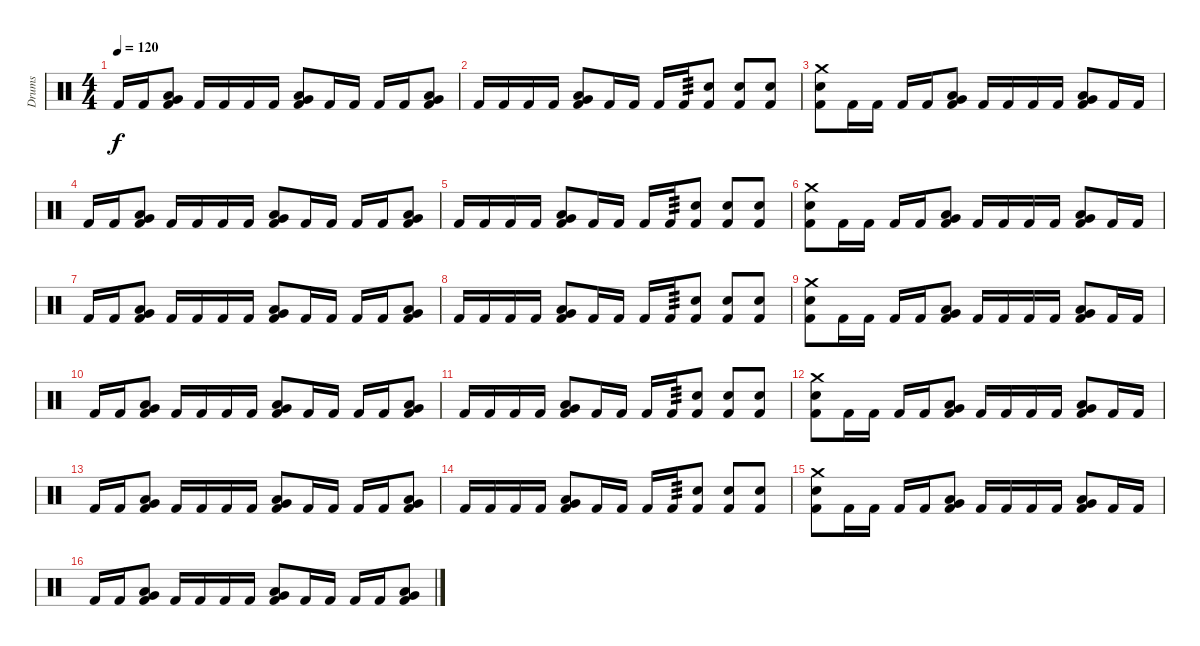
\track ("Drums" "Drums") {instrument percussion}
\staff {score}
\articulation defaults
\ts (4 4)
\tempo 120
\clef neutral
\ks c "Kick (hit) 2".16{dy f} "Kick (hit) 2".16
("Low Floor Tom (hit)" "Very Low Tom (hit)" "Kick (hit) 2").8 "Kick (hit) 2".16 "Kick (hit) 2".16 "Kick (hit) 2".16 "Kick (hit) 2".16 ("Low Floor Tom (hit)" "Very Low Tom (hit)" "Kick (hit) 2").8 "Kick (hit) 2".16 "Kick (hit) 2".16 "Kick (hit) 2".16 "Kick (hit) 2".16 ("Low Floor Tom (hit)" "Very Low Tom (hit)" "Kick (hit) 2").8 |
"Kick (hit) 2".16 "Kick (hit) 2".16 "Kick (hit) 2".16 "Kick (hit) 2".16 ("Low Floor Tom (hit)" "Very Low Tom (hit)" "Kick (hit) 2").8 "Kick (hit) 2".16 "Kick (hit) 2".16 "Kick (hit) 2".16 "Kick (hit) 2".16{tp 3} ("Snare (hit) 2" "Kick (hit) 2").8 ("Snare (hit) 2" "Kick (hit) 2").8 ("Snare (hit) 2" "Kick (hit) 2").8 |
("Crash medium (hit)" "Snare (hit) 2" "Kick (hit) 2").8 "Kick (hit) 2".16 "Kick (hit) 2".16 "Kick (hit) 2".16 "Kick (hit) 2".16 ("Low Floor Tom (hit)" "Very Low Tom (hit)" "Kick (hit) 2").8 "Kick (hit) 2".16 "Kick (hit) 2".16 "Kick (hit) 2".16 "Kick (hit) 2".16 ("Low Floor Tom (hit)" "Very Low Tom (hit)" "Kick (hit) 2").8 "Kick (hit) 2".16 "Kick (hit) 2".16 |
"Kick (hit) 2".16 "Kick (hit) 2".16 ("Low Floor Tom (hit)" "Very Low Tom (hit)" "Kick (hit) 2").8 "Kick (hit) 2".16 "Kick (hit) 2".16 "Kick (hit) 2".16 "Kick (hit) 2".16 ("Low Floor Tom (hit)" "Very Low Tom (hit)" "Kick (hit) 2").8 "Kick (hit) 2".16 "Kick (hit) 2".16 "Kick (hit) 2".16 "Kick (hit) 2".16 ("Low Floor Tom (hit)" "Very Low Tom (hit)" "Kick (hit) 2").8 |
"Kick (hit) 2".16 "Kick (hit) 2".16 "Kick (hit) 2".16 "Kick (hit) 2".16 ("Low Floor Tom (hit)" "Very Low Tom (hit)" "Kick (hit) 2").8 "Kick (hit) 2".16 "Kick (hit) 2".16 "Kick (hit) 2".16 "Kick (hit) 2".16{tp 3} ("Snare (hit) 2" "Kick (hit) 2").8 ("Snare (hit) 2" "Kick (hit) 2").8 ("Snare (hit) 2" "Kick (hit) 2").8 |
("Crash medium (hit)" "Snare (hit) 2" "Kick (hit) 2").8 "Kick (hit) 2".16 "Kick (hit) 2".16 "Kick (hit) 2".16 "Kick (hit) 2".16 ("Low Floor Tom (hit)" "Very Low Tom (hit)" "Kick (hit) 2").8 "Kick (hit) 2".16 "Kick (hit) 2".16 "Kick (hit) 2".16 "Kick (hit) 2".16 ("Low Floor Tom (hit)" "Very Low Tom (hit)" "Kick (hit) 2").8 "Kick (hit) 2".16 "Kick (hit) 2".16 |
"Kick (hit) 2".16 "Kick (hit) 2".16 ("Low Floor Tom (hit)" "Very Low Tom (hit)" "Kick (hit) 2").8 "Kick (hit) 2".16 "Kick (hit) 2".16 "Kick (hit) 2".16 "Kick (hit) 2".16 ("Low Floor Tom (hit)" "Very Low Tom (hit)" "Kick (hit) 2").8 "Kick (hit) 2".16 "Kick (hit) 2".16 "Kick (hit) 2".16 "Kick (hit) 2".16 ("Low Floor Tom (hit)" "Very Low Tom (hit)" "Kick (hit) 2").8 |
"Kick (hit) 2".16 "Kick (hit) 2".16 "Kick (hit) 2".16 "Kick (hit) 2".16 ("Low Floor Tom (hit)" "Very Low Tom (hit)" "Kick (hit) 2").8 "Kick (hit) 2".16 "Kick (hit) 2".16 "Kick (hit) 2".16 "Kick (hit) 2".16{tp 3} ("Snare (hit) 2" "Kick (hit) 2").8 ("Snare (hit) 2" "Kick (hit) 2").8 ("Snare (hit) 2" "Kick (hit) 2").8 |
("Crash medium (hit)" "Snare (hit) 2" "Kick (hit) 2").8 "Kick (hit) 2".16 "Kick (hit) 2".16 "Kick (hit) 2".16 "Kick (hit) 2".16 ("Low Floor Tom (hit)" "Very Low Tom (hit)" "Kick (hit) 2").8 "Kick (hit) 2".16 "Kick (hit) 2".16 "Kick (hit) 2".16 "Kick (hit) 2".16 ("Low Floor Tom (hit)" "Very Low Tom (hit)" "Kick (hit) 2").8 "Kick (hit) 2".16 "Kick (hit) 2".16 |
"Kick (hit) 2".16 "Kick (hit) 2".16 ("Low Floor Tom (hit)" "Very Low Tom (hit)" "Kick (hit) 2").8 "Kick (hit) 2".16 "Kick (hit) 2".16 "Kick (hit) 2".16 "Kick (hit) 2".16 ("Low Floor Tom (hit)" "Very Low Tom (hit)" "Kick (hit) 2").8 "Kick (hit) 2".16 "Kick (hit) 2".16 "Kick (hit) 2".16 "Kick (hit) 2".16 ("Low Floor Tom (hit)" "Very Low Tom (hit)" "Kick (hit) 2").8 |
"Kick (hit) 2".16 "Kick (hit) 2".16 "Kick (hit) 2".16 "Kick (hit) 2".16 ("Low Floor Tom (hit)" "Very Low Tom (hit)" "Kick (hit) 2").8 "Kick (hit) 2".16 "Kick (hit) 2".16 "Kick (hit) 2".16 "Kick (hit) 2".16{tp 3} ("Snare (hit) 2" "Kick (hit) 2").8 ("Snare (hit) 2" "Kick (hit) 2").8 ("Snare (hit) 2" "Kick (hit) 2").8 |
("Crash medium (hit)" "Snare (hit) 2" "Kick (hit) 2").8 "Kick (hit) 2".16 "Kick (hit) 2".16 "Kick (hit) 2".16 "Kick (hit) 2".16 ("Low Floor Tom (hit)" "Very Low Tom (hit)" "Kick (hit) 2").8 "Kick (hit) 2".16 "Kick (hit) 2".16 "Kick (hit) 2".16 "Kick (hit) 2".16 ("Low Floor Tom (hit)" "Very Low Tom (hit)" "Kick (hit) 2").8 "Kick (hit) 2".16 "Kick (hit) 2".16 |
"Kick (hit) 2".16 "Kick (hit) 2".16 ("Low Floor Tom (hit)" "Very Low Tom (hit)" "Kick (hit) 2").8 "Kick (hit) 2".16 "Kick (hit) 2".16 "Kick (hit) 2".16 "Kick (hit) 2".16 ("Low Floor Tom (hit)" "Very Low Tom (hit)" "Kick (hit) 2").8 "Kick (hit) 2".16 "Kick (hit) 2".16 "Kick (hit) 2".16 "Kick (hit) 2".16 ("Low Floor Tom (hit)" "Very Low Tom (hit)" "Kick (hit) 2").8 |
"Kick (hit) 2".16 "Kick (hit) 2".16 "Kick (hit) 2".16 "Kick (hit) 2".16 ("Low Floor Tom (hit)" "Very Low Tom (hit)" "Kick (hit) 2").8 "Kick (hit) 2".16 "Kick (hit) 2".16 "Kick (hit) 2".16 "Kick (hit) 2".16{tp 3} ("Snare (hit) 2" "Kick (hit) 2").8 ("Snare (hit) 2" "Kick (hit) 2").8 ("Snare (hit) 2" "Kick (hit) 2").8 |
("Crash medium (hit)" "Snare (hit) 2" "Kick (hit) 2").8 "Kick (hit) 2".16 "Kick (hit) 2".16 "Kick (hit) 2".16 "Kick (hit) 2".16 ("Low Floor Tom (hit)" "Very Low Tom (hit)" "Kick (hit) 2").8 "Kick (hit) 2".16 "Kick (hit) 2".16 "Kick (hit) 2".16 "Kick (hit) 2".16 ("Low Floor Tom (hit)" "Very Low Tom (hit)" "Kick (hit) 2").8 "Kick (hit) 2".16 "Kick (hit) 2".16 |
"Kick (hit) 2".16 "Kick (hit) 2".16 ("Low Floor Tom (hit)" "Very Low Tom (hit)" "Kick (hit) 2").8 "Kick (hit) 2".16 "Kick (hit) 2".16 "Kick (hit) 2".16 "Kick (hit) 2".16 ("Low Floor Tom (hit)" "Very Low Tom (hit)" "Kick (hit) 2").8 "Kick (hit) 2".16 "Kick (hit) 2".16 "Kick (hit) 2".16 "Kick (hit) 2".16 ("Low Floor Tom (hit)" "Very Low Tom (hit)" "Kick (hit) 2").8
